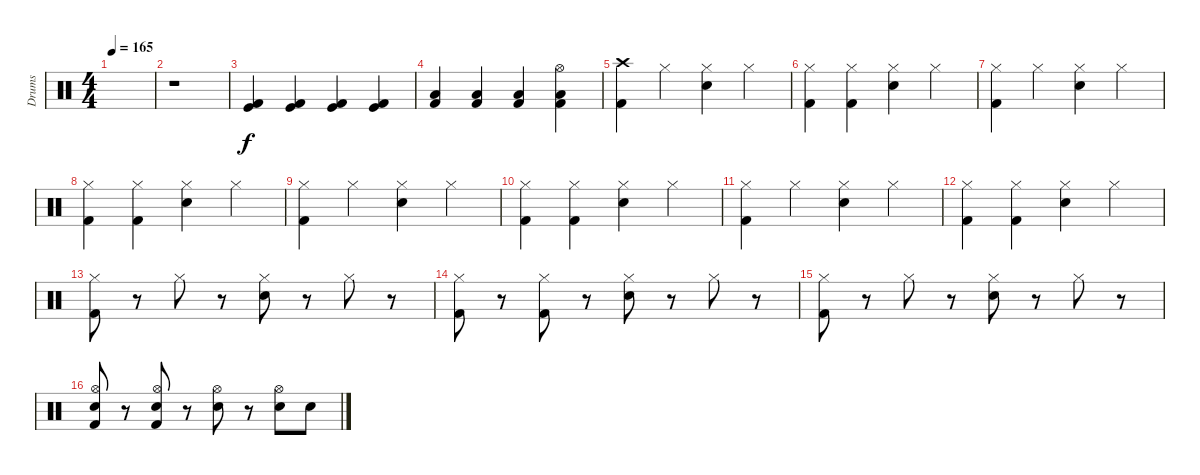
\track ("Drums" "Drums") {instrument percussion}
\staff {score}
\articulation defaults
\ts (4 4)
\tempo 165
\clef neutral
\ks c
|
r.1{volume 4} |
("Kick (hit)" "Kick (hit) 2").4{volume 10} ("Kick (hit)" "Kick (hit) 2").4 ("Kick (hit)" "Kick (hit) 2").4 ("Kick (hit)" "Kick (hit) 2").4 |
("Low Tom (hit)" "Kick (hit) 2").4 ("Low Tom (hit)" "Kick (hit) 2").4 ("Low Tom (hit)" "Kick (hit) 2").4 ("Hi-Hat (open)" "Low Tom (hit)" "Kick (hit) 2").4 |
("Crash high (hit)" "Kick (hit) 2").4 "Hi-Hat (closed)".4 ("Hi-Hat (closed)" "Electric Snare (hit)").4 "Hi-Hat (closed)".4 |
("Hi-Hat (closed)" "Kick (hit) 2").4 ("Hi-Hat (closed)" "Kick (hit) 2").4 ("Hi-Hat (closed)" "Electric Snare (hit)").4 "Hi-Hat (closed)".4 |
("Hi-Hat (closed)" "Kick (hit) 2").4 "Hi-Hat (closed)".4 ("Hi-Hat (closed)" "Electric Snare (hit)").4 "Hi-Hat (closed)".4 |
("Hi-Hat (closed)" "Kick (hit) 2").4 ("Hi-Hat (closed)" "Kick (hit) 2").4 ("Hi-Hat (closed)" "Electric Snare (hit)").4 "Hi-Hat (closed)".4 |
("Hi-Hat (closed)" "Kick (hit) 2").4 "Hi-Hat (closed)".4 ("Hi-Hat (closed)" "Electric Snare (hit)").4 "Hi-Hat (closed)".4 |
("Hi-Hat (closed)" "Kick (hit) 2").4 ("Hi-Hat (closed)" "Kick (hit) 2").4 ("Hi-Hat (closed)" "Electric Snare (hit)").4 "Hi-Hat (closed)".4 |
("Hi-Hat (closed)" "Kick (hit) 2").4 "Hi-Hat (closed)".4 ("Hi-Hat (closed)" "Electric Snare (hit)").4 "Hi-Hat (closed)".4 |
("Hi-Hat (closed)" "Kick (hit) 2").4 ("Hi-Hat (closed)" "Kick (hit) 2").4 ("Hi-Hat (closed)" "Electric Snare (hit)").4 "Hi-Hat (closed)".4 |
("Hi-Hat (closed)" "Kick (hit) 2").8 r.8 "Hi-Hat (closed)".8 r.8 ("Hi-Hat (closed)" "Electric Snare (hit)").8 r.8 "Hi-Hat (closed)".8 r.8 |
("Hi-Hat (closed)" "Kick (hit) 2").8 r.8 ("Hi-Hat (closed)" "Kick (hit) 2").8 r.8 ("Hi-Hat (closed)" "Electric Snare (hit)").8 r.8 "Hi-Hat (closed)".8 r.8 |
("Hi-Hat (closed)" "Kick (hit) 2").8 r.8 "Hi-Hat (closed)".8 r.8 ("Hi-Hat (closed)" "Electric Snare (hit)").8 r.8 "Hi-Hat (closed)".8 r.8 |
("Hi-Hat (open)" "Electric Snare (hit)" "Kick (hit) 2").8 r.8 ("Hi-Hat (open)" "Electric Snare (hit)" "Kick (hit) 2").8 r.8 ("Hi-Hat (open)" "Electric Snare (hit)").8 r.8 ("Hi-Hat (open)" "Electric Snare (hit)").8 "Electric Snare (hit)".8
